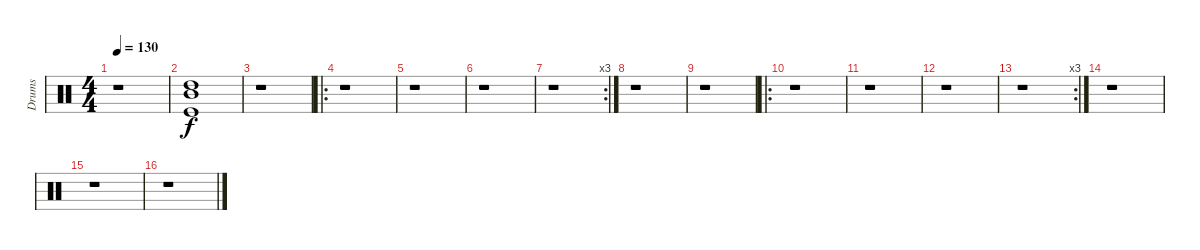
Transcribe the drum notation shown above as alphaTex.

\track ("Drums" "Drums") {instrument percussion}
\staff {score}
\articulation defaults
\ts (4 4)
\tempo 130
\clef neutral
\ks c
r.1{dy f} |
("Mid Tom (hit)" "High Tom (hit)" "Kick (hit)").1 |
r.1 |
\ro
r.1 |
r.1 |
r.1 |
\rc 3
r.1 |
r.1 |
r.1 |
\ro
r.1 |
r.1 |
r.1 |
\rc 3
r.1 |
r.1 |
r.1 |
r.1
